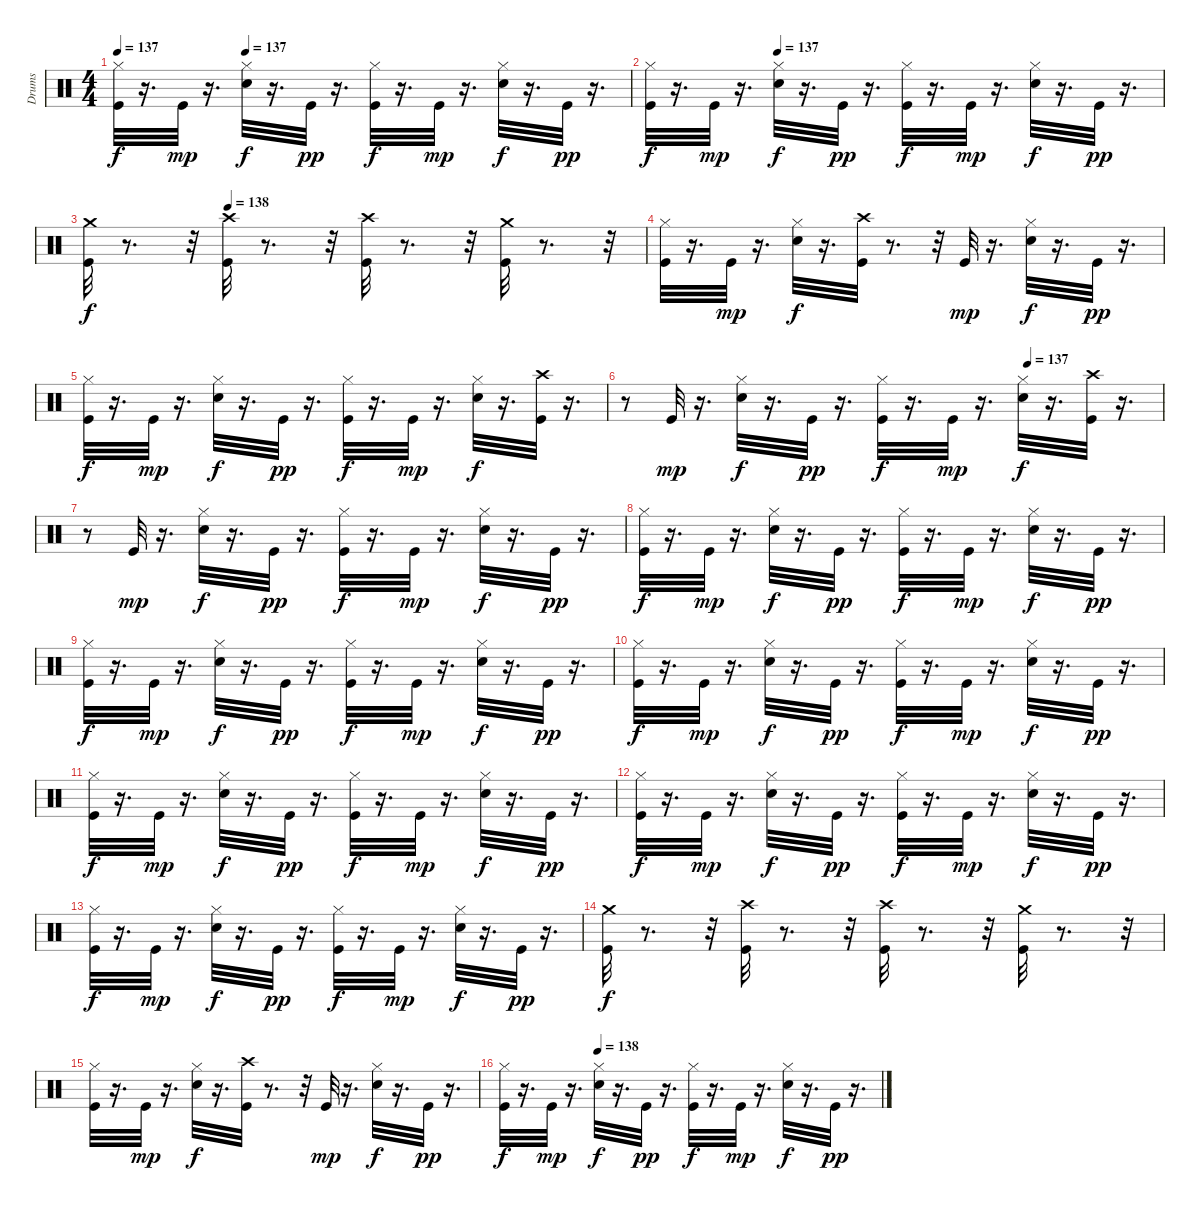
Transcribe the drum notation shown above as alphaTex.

\track ("Drums" "Drums") {instrument percussion}
\staff {score}
\articulation defaults
\ts (4 4)
\tempo 137
\tempo (137 0.25)
\clef neutral
\ks c
("Hi-Hat (closed)" "Kick (hit)").32{dy f} r.16{d} "Kick (hit)".32{dy mp} r.16{d} ("Hi-Hat (closed)" "Snare (hit) 2").32{dy f} r.16{d} "Kick (hit)".32{dy pp} r.16{d} ("Hi-Hat (closed)" "Kick (hit)").32{dy f} r.16{d} "Kick (hit)".32{dy mp} r.16{d} ("Hi-Hat (closed)" "Snare (hit) 2").32{dy f} r.16{d} "Kick (hit)".32{dy pp} r.16{d} |
\tempo (137 0.25)
("Hi-Hat (closed)" "Kick (hit)").32{dy f} r.16{d} "Kick (hit)".32{dy mp} r.16{d} ("Hi-Hat (closed)" "Snare (hit) 2").32{dy f} r.16{d} "Kick (hit)".32{dy pp} r.16{d} ("Hi-Hat (closed)" "Kick (hit)").32{dy f} r.16{d} "Kick (hit)".32{dy mp} r.16{d} ("Hi-Hat (closed)" "Snare (hit) 2").32{dy f} r.16{d} "Kick (hit)".32{dy pp} r.16{d} |
\tempo (138 0.25)
("Crash medium (hit)" "Kick (hit)").32{dy f} r.8{d} r.32 ("Crash high (hit)" "Kick (hit)").32 r.8{d} r.32 ("Crash high (hit)" "Kick (hit)").32 r.8{d} r.32 ("Crash medium (hit)" "Kick (hit)").32 r.8{d} r.32 |
("Hi-Hat (closed)" "Kick (hit)").32 r.16{d} "Kick (hit)".32{dy mp} r.16{d} ("Hi-Hat (closed)" "Snare (hit) 2").32{dy f} r.16{d} ("Crash high (hit)" "Kick (hit)").32 r.8{d} r.32 "Kick (hit)".32{dy mp} r.16{d} ("Hi-Hat (closed)" "Snare (hit) 2").32{dy f} r.16{d} "Kick (hit)".32{dy pp} r.16{d} |
("Hi-Hat (closed)" "Kick (hit)").32{dy f} r.16{d} "Kick (hit)".32{dy mp} r.16{d} ("Hi-Hat (closed)" "Snare (hit) 2").32{dy f} r.16{d} "Kick (hit)".32{dy pp} r.16{d} ("Hi-Hat (closed)" "Kick (hit)").32{dy f} r.16{d} "Kick (hit)".32{dy mp} r.16{d} ("Hi-Hat (closed)" "Snare (hit) 2").32{dy f} r.16{d} ("Crash high (hit)" "Kick (hit)").32 r.16{d} |
\tempo (137 0.75)
r.8 "Kick (hit)".32{dy mp} r.16{d} ("Hi-Hat (closed)" "Snare (hit) 2").32{dy f} r.16{d} "Kick (hit)".32{dy pp} r.16{d} ("Hi-Hat (closed)" "Kick (hit)").32{dy f} r.16{d} "Kick (hit)".32{dy mp} r.16{d} ("Hi-Hat (closed)" "Snare (hit) 2").32{dy f} r.16{d} ("Crash high (hit)" "Kick (hit)").32 r.16{d} |
r.8 "Kick (hit)".32{dy mp} r.16{d} ("Hi-Hat (closed)" "Snare (hit) 2").32{dy f} r.16{d} "Kick (hit)".32{dy pp} r.16{d} ("Hi-Hat (closed)" "Kick (hit)").32{dy f} r.16{d} "Kick (hit)".32{dy mp} r.16{d} ("Hi-Hat (closed)" "Snare (hit) 2").32{dy f} r.16{d} "Kick (hit)".32{dy pp} r.16{d} |
("Hi-Hat (closed)" "Kick (hit)").32{dy f} r.16{d} "Kick (hit)".32{dy mp} r.16{d} ("Hi-Hat (closed)" "Snare (hit) 2").32{dy f} r.16{d} "Kick (hit)".32{dy pp} r.16{d} ("Hi-Hat (closed)" "Kick (hit)").32{dy f} r.16{d} "Kick (hit)".32{dy mp} r.16{d} ("Hi-Hat (closed)" "Snare (hit) 2").32{dy f} r.16{d} "Kick (hit)".32{dy pp} r.16{d} |
("Hi-Hat (closed)" "Kick (hit)").32{dy f} r.16{d} "Kick (hit)".32{dy mp} r.16{d} ("Hi-Hat (closed)" "Snare (hit) 2").32{dy f} r.16{d} "Kick (hit)".32{dy pp} r.16{d} ("Hi-Hat (closed)" "Kick (hit)").32{dy f} r.16{d} "Kick (hit)".32{dy mp} r.16{d} ("Hi-Hat (closed)" "Snare (hit) 2").32{dy f} r.16{d} "Kick (hit)".32{dy pp} r.16{d} |
("Hi-Hat (closed)" "Kick (hit)").32{dy f} r.16{d} "Kick (hit)".32{dy mp} r.16{d} ("Hi-Hat (closed)" "Snare (hit) 2").32{dy f} r.16{d} "Kick (hit)".32{dy pp} r.16{d} ("Hi-Hat (closed)" "Kick (hit)").32{dy f} r.16{d} "Kick (hit)".32{dy mp} r.16{d} ("Hi-Hat (closed)" "Snare (hit) 2").32{dy f} r.16{d} "Kick (hit)".32{dy pp} r.16{d} |
("Hi-Hat (closed)" "Kick (hit)").32{dy f} r.16{d} "Kick (hit)".32{dy mp} r.16{d} ("Hi-Hat (closed)" "Snare (hit) 2").32{dy f} r.16{d} "Kick (hit)".32{dy pp} r.16{d} ("Hi-Hat (closed)" "Kick (hit)").32{dy f} r.16{d} "Kick (hit)".32{dy mp} r.16{d} ("Hi-Hat (closed)" "Snare (hit) 2").32{dy f} r.16{d} "Kick (hit)".32{dy pp} r.16{d} |
("Hi-Hat (closed)" "Kick (hit)").32{dy f} r.16{d} "Kick (hit)".32{dy mp} r.16{d} ("Hi-Hat (closed)" "Snare (hit) 2").32{dy f} r.16{d} "Kick (hit)".32{dy pp} r.16{d} ("Hi-Hat (closed)" "Kick (hit)").32{dy f} r.16{d} "Kick (hit)".32{dy mp} r.16{d} ("Hi-Hat (closed)" "Snare (hit) 2").32{dy f} r.16{d} "Kick (hit)".32{dy pp} r.16{d} |
("Hi-Hat (closed)" "Kick (hit)").32{dy f} r.16{d} "Kick (hit)".32{dy mp} r.16{d} ("Hi-Hat (closed)" "Snare (hit) 2").32{dy f} r.16{d} "Kick (hit)".32{dy pp} r.16{d} ("Hi-Hat (closed)" "Kick (hit)").32{dy f} r.16{d} "Kick (hit)".32{dy mp} r.16{d} ("Hi-Hat (closed)" "Snare (hit) 2").32{dy f} r.16{d} "Kick (hit)".32{dy pp} r.16{d} |
("Crash medium (hit)" "Kick (hit)").32{dy f} r.8{d} r.32 ("Crash high (hit)" "Kick (hit)").32 r.8{d} r.32 ("Crash high (hit)" "Kick (hit)").32 r.8{d} r.32 ("Crash medium (hit)" "Kick (hit)").32 r.8{d} r.32 |
("Hi-Hat (closed)" "Kick (hit)").32 r.16{d} "Kick (hit)".32{dy mp} r.16{d} ("Hi-Hat (closed)" "Snare (hit) 2").32{dy f} r.16{d} ("Crash high (hit)" "Kick (hit)").32 r.8{d} r.32 "Kick (hit)".32{dy mp} r.16{d} ("Hi-Hat (closed)" "Snare (hit) 2").32{dy f} r.16{d} "Kick (hit)".32{dy pp} r.16{d} |
\tempo (138 0.25)
("Hi-Hat (closed)" "Kick (hit)").32{dy f} r.16{d} "Kick (hit)".32{dy mp} r.16{d} ("Hi-Hat (closed)" "Snare (hit) 2").32{dy f} r.16{d} "Kick (hit)".32{dy pp} r.16{d} ("Hi-Hat (closed)" "Kick (hit)").32{dy f} r.16{d} "Kick (hit)".32{dy mp} r.16{d} ("Hi-Hat (closed)" "Snare (hit) 2").32{dy f} r.16{d} "Kick (hit)".32{dy pp} r.16{d}
